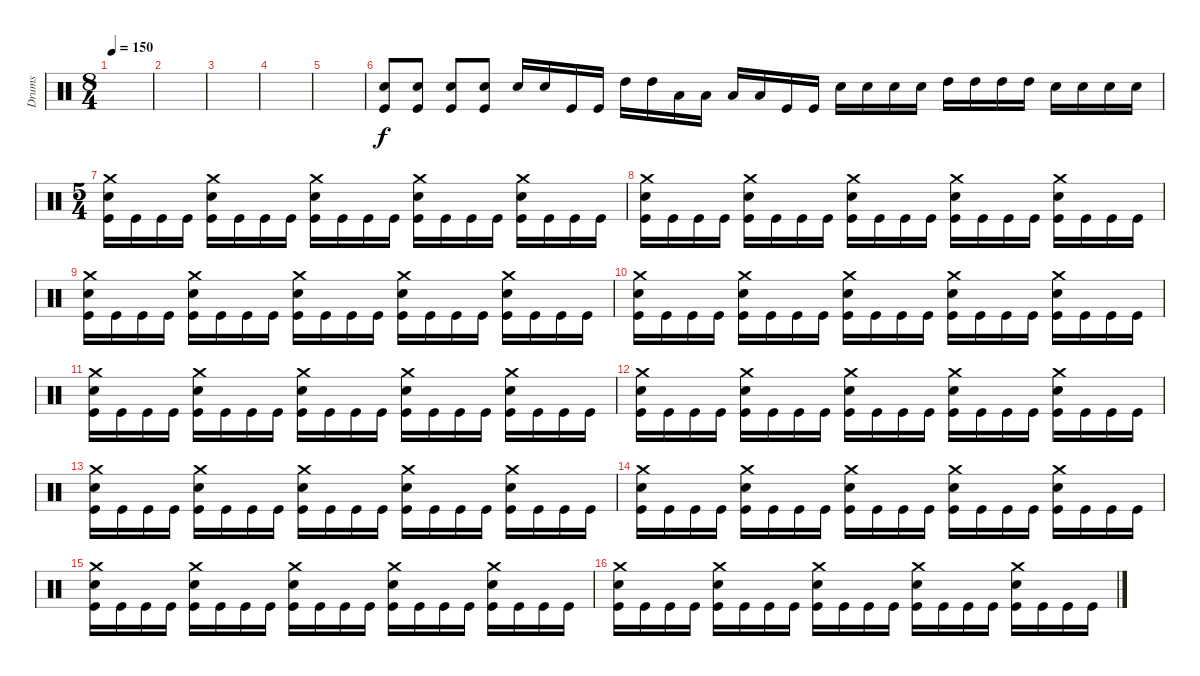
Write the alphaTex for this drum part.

\track ("Drums" "Drums") {instrument percussion}
\staff {score}
\articulation defaults
\ts (8 4)
\tempo 150
\clef neutral
\ks c
|
|
|
|
|
("Snare (hit) 2" "Kick (hit)").8{volume 14} ("Snare (hit) 2" "Kick (hit)").8 ("Snare (hit) 2" "Kick (hit)").8 ("Snare (hit) 2" "Kick (hit)").8 "Snare (hit) 2".16 "Snare (hit) 2".16 "Kick (hit)".16 "Kick (hit)".16 "High Tom (hit)".16 "High Tom (hit)".16 "Low Tom (hit)".16 "Low Tom (hit)".16 "Low Floor Tom (hit)".16 "Low Floor Tom (hit)".16 "Kick (hit)".16 "Kick (hit)".16 "Snare (hit) 2".16 "Snare (hit) 2".16 "Snare (hit) 2".16 "Snare (hit) 2".16 "High Tom (hit)".16 "High Tom (hit)".16 "High Tom (hit)".16 "High Tom (hit)".16 "Snare (hit) 2".16 "Snare (hit) 2".16 "Snare (hit) 2".16 "Snare (hit) 2".16 |
\ts (5 4)
("Crash medium (hit)" "Snare (hit) 2" "Kick (hit)").16 "Kick (hit)".16 "Kick (hit)".16 "Kick (hit)".16 ("Crash medium (hit)" "Snare (hit) 2" "Kick (hit)").16 "Kick (hit)".16 "Kick (hit)".16 "Kick (hit)".16 ("Crash medium (hit)" "Snare (hit) 2" "Kick (hit)").16 "Kick (hit)".16 "Kick (hit)".16 "Kick (hit)".16 ("Crash medium (hit)" "Snare (hit) 2" "Kick (hit)").16 "Kick (hit)".16 "Kick (hit)".16 "Kick (hit)".16 ("Crash medium (hit)" "Snare (hit) 2" "Kick (hit)").16 "Kick (hit)".16 "Kick (hit)".16 "Kick (hit)".16 |
("Crash medium (hit)" "Snare (hit) 2" "Kick (hit)").16 "Kick (hit)".16 "Kick (hit)".16 "Kick (hit)".16 ("Crash medium (hit)" "Snare (hit) 2" "Kick (hit)").16 "Kick (hit)".16 "Kick (hit)".16 "Kick (hit)".16 ("Crash medium (hit)" "Snare (hit) 2" "Kick (hit)").16 "Kick (hit)".16 "Kick (hit)".16 "Kick (hit)".16 ("Crash medium (hit)" "Snare (hit) 2" "Kick (hit)").16 "Kick (hit)".16 "Kick (hit)".16 "Kick (hit)".16 ("Crash medium (hit)" "Snare (hit) 2" "Kick (hit)").16 "Kick (hit)".16 "Kick (hit)".16 "Kick (hit)".16 |
("Crash medium (hit)" "Snare (hit) 2" "Kick (hit)").16 "Kick (hit)".16 "Kick (hit)".16 "Kick (hit)".16 ("Crash medium (hit)" "Snare (hit) 2" "Kick (hit)").16 "Kick (hit)".16 "Kick (hit)".16 "Kick (hit)".16 ("Crash medium (hit)" "Snare (hit) 2" "Kick (hit)").16 "Kick (hit)".16 "Kick (hit)".16 "Kick (hit)".16 ("Crash medium (hit)" "Snare (hit) 2" "Kick (hit)").16 "Kick (hit)".16 "Kick (hit)".16 "Kick (hit)".16 ("Crash medium (hit)" "Snare (hit) 2" "Kick (hit)").16 "Kick (hit)".16 "Kick (hit)".16 "Kick (hit)".16 |
("Crash medium (hit)" "Snare (hit) 2" "Kick (hit)").16 "Kick (hit)".16 "Kick (hit)".16 "Kick (hit)".16 ("Crash medium (hit)" "Snare (hit) 2" "Kick (hit)").16 "Kick (hit)".16 "Kick (hit)".16 "Kick (hit)".16 ("Crash medium (hit)" "Snare (hit) 2" "Kick (hit)").16 "Kick (hit)".16 "Kick (hit)".16 "Kick (hit)".16 ("Crash medium (hit)" "Snare (hit) 2" "Kick (hit)").16 "Kick (hit)".16 "Kick (hit)".16 "Kick (hit)".16 ("Crash medium (hit)" "Snare (hit) 2" "Kick (hit)").16 "Kick (hit)".16 "Kick (hit)".16 "Kick (hit)".16 |
("Crash medium (hit)" "Snare (hit) 2" "Kick (hit)").16 "Kick (hit)".16 "Kick (hit)".16 "Kick (hit)".16 ("Crash medium (hit)" "Snare (hit) 2" "Kick (hit)").16 "Kick (hit)".16 "Kick (hit)".16 "Kick (hit)".16 ("Crash medium (hit)" "Snare (hit) 2" "Kick (hit)").16 "Kick (hit)".16 "Kick (hit)".16 "Kick (hit)".16 ("Crash medium (hit)" "Snare (hit) 2" "Kick (hit)").16 "Kick (hit)".16 "Kick (hit)".16 "Kick (hit)".16 ("Crash medium (hit)" "Snare (hit) 2" "Kick (hit)").16 "Kick (hit)".16 "Kick (hit)".16 "Kick (hit)".16 |
("Crash medium (hit)" "Snare (hit) 2" "Kick (hit)").16 "Kick (hit)".16 "Kick (hit)".16 "Kick (hit)".16 ("Crash medium (hit)" "Snare (hit) 2" "Kick (hit)").16 "Kick (hit)".16 "Kick (hit)".16 "Kick (hit)".16 ("Crash medium (hit)" "Snare (hit) 2" "Kick (hit)").16 "Kick (hit)".16 "Kick (hit)".16 "Kick (hit)".16 ("Crash medium (hit)" "Snare (hit) 2" "Kick (hit)").16 "Kick (hit)".16 "Kick (hit)".16 "Kick (hit)".16 ("Crash medium (hit)" "Snare (hit) 2" "Kick (hit)").16 "Kick (hit)".16 "Kick (hit)".16 "Kick (hit)".16 |
("Crash medium (hit)" "Snare (hit) 2" "Kick (hit)").16 "Kick (hit)".16 "Kick (hit)".16 "Kick (hit)".16 ("Crash medium (hit)" "Snare (hit) 2" "Kick (hit)").16 "Kick (hit)".16 "Kick (hit)".16 "Kick (hit)".16 ("Crash medium (hit)" "Snare (hit) 2" "Kick (hit)").16 "Kick (hit)".16 "Kick (hit)".16 "Kick (hit)".16 ("Crash medium (hit)" "Snare (hit) 2" "Kick (hit)").16 "Kick (hit)".16 "Kick (hit)".16 "Kick (hit)".16 ("Crash medium (hit)" "Snare (hit) 2" "Kick (hit)").16 "Kick (hit)".16 "Kick (hit)".16 "Kick (hit)".16 |
("Crash medium (hit)" "Snare (hit) 2" "Kick (hit)").16 "Kick (hit)".16 "Kick (hit)".16 "Kick (hit)".16 ("Crash medium (hit)" "Snare (hit) 2" "Kick (hit)").16 "Kick (hit)".16 "Kick (hit)".16 "Kick (hit)".16 ("Crash medium (hit)" "Snare (hit) 2" "Kick (hit)").16 "Kick (hit)".16 "Kick (hit)".16 "Kick (hit)".16 ("Crash medium (hit)" "Snare (hit) 2" "Kick (hit)").16 "Kick (hit)".16 "Kick (hit)".16 "Kick (hit)".16 ("Crash medium (hit)" "Snare (hit) 2" "Kick (hit)").16 "Kick (hit)".16 "Kick (hit)".16 "Kick (hit)".16 |
("Crash medium (hit)" "Snare (hit) 2" "Kick (hit)").16 "Kick (hit)".16 "Kick (hit)".16 "Kick (hit)".16 ("Crash medium (hit)" "Snare (hit) 2" "Kick (hit)").16 "Kick (hit)".16 "Kick (hit)".16 "Kick (hit)".16 ("Crash medium (hit)" "Snare (hit) 2" "Kick (hit)").16 "Kick (hit)".16 "Kick (hit)".16 "Kick (hit)".16 ("Crash medium (hit)" "Snare (hit) 2" "Kick (hit)").16 "Kick (hit)".16 "Kick (hit)".16 "Kick (hit)".16 ("Crash medium (hit)" "Snare (hit) 2" "Kick (hit)").16 "Kick (hit)".16 "Kick (hit)".16 "Kick (hit)".16 |
("Crash medium (hit)" "Snare (hit) 2" "Kick (hit)").16 "Kick (hit)".16 "Kick (hit)".16 "Kick (hit)".16 ("Crash medium (hit)" "Snare (hit) 2" "Kick (hit)").16 "Kick (hit)".16 "Kick (hit)".16 "Kick (hit)".16 ("Crash medium (hit)" "Snare (hit) 2" "Kick (hit)").16 "Kick (hit)".16 "Kick (hit)".16 "Kick (hit)".16 ("Crash medium (hit)" "Snare (hit) 2" "Kick (hit)").16 "Kick (hit)".16 "Kick (hit)".16 "Kick (hit)".16 ("Crash medium (hit)" "Snare (hit) 2" "Kick (hit)").16 "Kick (hit)".16 "Kick (hit)".16 "Kick (hit)".16
